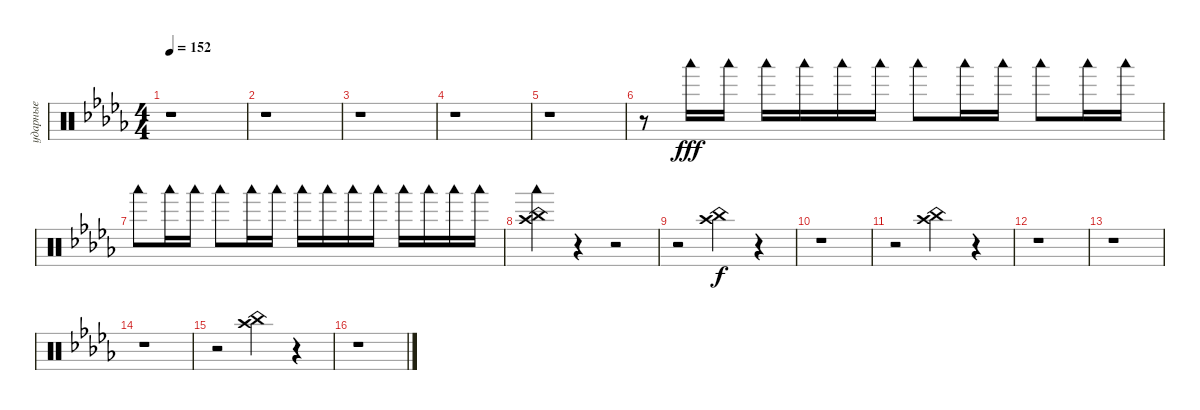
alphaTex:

\track ("ударные" "ударные") {instrument percussion}
\staff {score}
\articulation defaults
\ts (4 4)
\tempo 152
\clef neutral
\ks bbminor
r.1{dy fff} |
r.1 |
r.1 |
r.1 |
r.1 |
r.8 "Woodblock low (hit)".16 "Woodblock low (hit)".16 "Woodblock low (hit)".16 "Woodblock low (hit)".16 "Woodblock low (hit)".16 "Woodblock low (hit)".16 "Woodblock low (hit)".8 "Woodblock low (hit)".16 "Woodblock low (hit)".16 "Woodblock low (hit)".8 "Woodblock low (hit)".16 "Woodblock low (hit)".16 |
"Woodblock low (hit)".8 "Woodblock low (hit)".16 "Woodblock low (hit)".16 "Woodblock low (hit)".8 "Woodblock low (hit)".16 "Woodblock low (hit)".16 "Woodblock low (hit)".16 "Woodblock low (hit)".16 "Woodblock low (hit)".16 "Woodblock low (hit)".16 "Woodblock low (hit)".16 "Woodblock low (hit)".16 "Woodblock low (hit)".16 "Woodblock low (hit)".16 |
("Woodblock low (hit)" "China (hit)" "Crash high (hit)").4 r.4 r.2 |
r.2 ("China (hit)" "Crash high (hit)").4{dy f} r.4 |
r.1 |
r.2 ("China (hit)" "Crash high (hit)").4 r.4 |
r.1 |
r.1 |
r.1 |
r.2 ("China (hit)" "Crash high (hit)").4 r.4 |
r.1
